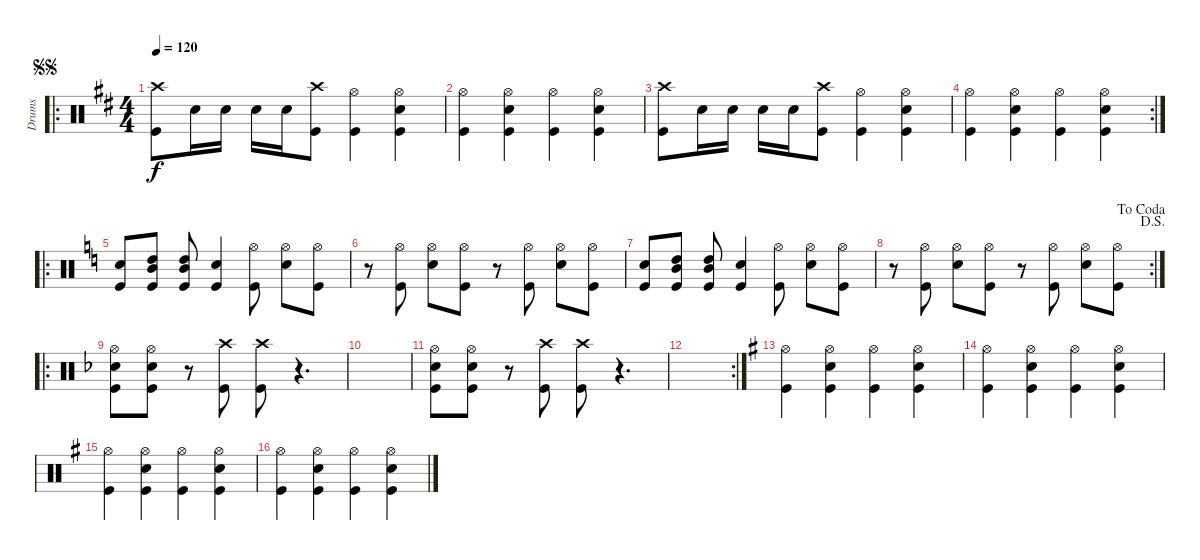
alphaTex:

\track ("Drums" "Drums") {instrument percussion}
\staff {score}
\articulation defaults
\ro
\ts (4 4)
\jump segnosegno
\tempo 120
\clef neutral
\ks d
("Kick (hit)" "Crash high (hit)").8{dy f} "Snare (hit) 2".16 "Snare (hit) 2".16 "Snare (hit) 2".16 "Snare (hit) 2".16 ("Kick (hit)" "Crash high (hit)").8 ("Hi-Hat (open)" "Kick (hit)").4 ("Snare (hit) 2" "Kick (hit)" "Hi-Hat (open)").4 |
("Hi-Hat (open)" "Kick (hit)").4 ("Snare (hit) 2" "Kick (hit)" "Hi-Hat (open)").4 ("Hi-Hat (open)" "Kick (hit)").4 ("Snare (hit) 2" "Kick (hit)" "Hi-Hat (open)").4 |
("Kick (hit)" "Crash high (hit)").8 "Snare (hit) 2".16 "Snare (hit) 2".16 "Snare (hit) 2".16 "Snare (hit) 2".16 ("Kick (hit)" "Crash high (hit)").8 ("Hi-Hat (open)" "Kick (hit)").4 ("Snare (hit) 2" "Kick (hit)" "Hi-Hat (open)").4 |
\rc 2
("Hi-Hat (open)" "Kick (hit)").4 ("Snare (hit) 2" "Kick (hit)" "Hi-Hat (open)").4 ("Hi-Hat (open)" "Kick (hit)").4 ("Snare (hit) 2" "Kick (hit)" "Hi-Hat (open)").4 |
\ro
\ks c
("Kick (hit)" "Snare (hit) 2").8 ("High Tom (hit)" "Mid Tom (hit)" "Kick (hit)").8 ("High Tom (hit)" "Mid Tom (hit)" "Kick (hit)").8 ("Snare (hit) 2" "Kick (hit)").4 ("Kick (hit)" "Hi-Hat (open)").8 ("Snare (hit) 2" "Hi-Hat (open)").8 ("Kick (hit)" "Hi-Hat (open)").8 |
r.8 ("Kick (hit)" "Hi-Hat (open)").8 ("Snare (hit) 2" "Hi-Hat (open)").8 ("Kick (hit)" "Hi-Hat (open)").8 r.8 ("Kick (hit)" "Hi-Hat (open)").8 ("Snare (hit) 2" "Hi-Hat (open)").8 ("Kick (hit)" "Hi-Hat (open)").8 |
("Kick (hit)" "Snare (hit) 2").8 ("High Tom (hit)" "Mid Tom (hit)" "Kick (hit)").8 ("High Tom (hit)" "Mid Tom (hit)" "Kick (hit)").8 ("Snare (hit) 2" "Kick (hit)").4 ("Kick (hit)" "Hi-Hat (open)").8 ("Snare (hit) 2" "Hi-Hat (open)").8 ("Kick (hit)" "Hi-Hat (open)").8 |
\rc 2
\jump dalsegno
\jump dacoda
r.8 ("Kick (hit)" "Hi-Hat (open)").8 ("Snare (hit) 2" "Hi-Hat (open)").8 ("Kick (hit)" "Hi-Hat (open)").8 r.8 ("Kick (hit)" "Hi-Hat (open)").8 ("Snare (hit) 2" "Hi-Hat (open)").8 ("Kick (hit)" "Hi-Hat (open)").8 |
\ro
\ks f
("Hi-Hat (open)" "Kick (hit)" "Snare (hit) 2").8 ("Hi-Hat (open)" "Kick (hit)" "Snare (hit) 2").8 r.8 ("Kick (hit)" "Crash high (hit)").8 ("Kick (hit)" "Crash high (hit)").8 r.4{d} |
|
("Hi-Hat (open)" "Kick (hit)" "Snare (hit) 2").8 ("Hi-Hat (open)" "Kick (hit)" "Snare (hit) 2").8 r.8 ("Kick (hit)" "Crash high (hit)").8 ("Kick (hit)" "Crash high (hit)").8 r.4{d} |
\rc 2
|
\ks g
("Hi-Hat (open)" "Kick (hit)").4 ("Snare (hit) 2" "Kick (hit)" "Hi-Hat (open)").4 ("Hi-Hat (open)" "Kick (hit)").4 ("Snare (hit) 2" "Kick (hit)" "Hi-Hat (open)").4 |
("Hi-Hat (open)" "Kick (hit)").4 ("Snare (hit) 2" "Kick (hit)" "Hi-Hat (open)").4 ("Hi-Hat (open)" "Kick (hit)").4 ("Snare (hit) 2" "Kick (hit)" "Hi-Hat (open)").4 |
("Hi-Hat (open)" "Kick (hit)").4 ("Snare (hit) 2" "Kick (hit)" "Hi-Hat (open)").4 ("Hi-Hat (open)" "Kick (hit)").4 ("Snare (hit) 2" "Kick (hit)" "Hi-Hat (open)").4 |
("Hi-Hat (open)" "Kick (hit)").4 ("Snare (hit) 2" "Kick (hit)" "Hi-Hat (open)").4 ("Hi-Hat (open)" "Kick (hit)").4 ("Snare (hit) 2" "Kick (hit)" "Hi-Hat (open)").4
